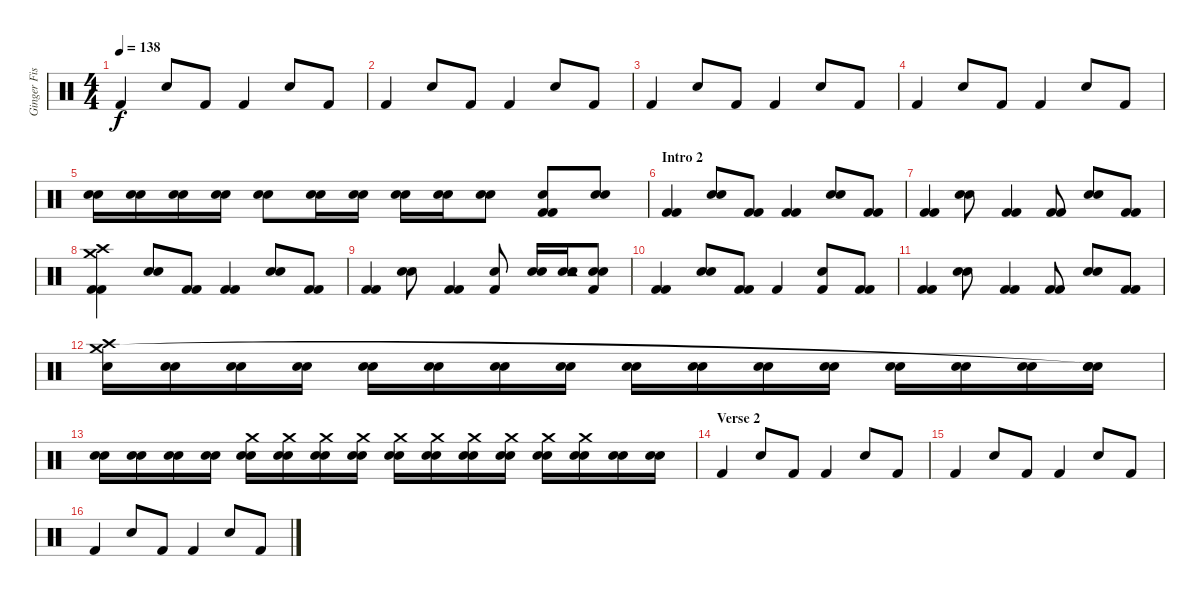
\track ("Ginger Fish [Drums]" "Ginger Fis") {instrument percussion}
\staff {score}
\articulation defaults
\ts (4 4)
\tempo 138
\clef neutral
\ks c "Kick (hit) 2".4{dy f} "Snare (hit) 2".8 "Kick (hit) 2".8 "Kick (hit) 2".4 "Snare (hit) 2".8 "Kick (hit) 2".8
|
"Kick (hit) 2".4 "Snare (hit) 2".8 "Kick (hit) 2".8 "Kick (hit) 2".4 "Snare (hit) 2".8 "Kick (hit) 2".8 |
"Kick (hit) 2".4 "Snare (hit) 2".8 "Kick (hit) 2".8 "Kick (hit) 2".4 "Snare (hit) 2".8 "Kick (hit) 2".8 |
"Kick (hit) 2".4 "Snare (hit) 2".8 "Kick (hit) 2".8 "Kick (hit) 2".4 "Snare (hit) 2".8 "Kick (hit) 2".8 |
("Snare (hit) 2" "Snare (hit) 2").16 ("Snare (hit) 2" "Snare (hit) 2").16 ("Snare (hit) 2" "Snare (hit) 2").16 ("Snare (hit) 2" "Snare (hit) 2").16 ("Snare (hit) 2" "Snare (hit) 2").8 ("Snare (hit) 2" "Snare (hit) 2").16 ("Snare (hit) 2" "Snare (hit) 2").16 ("Snare (hit) 2" "Snare (hit) 2").16 ("Snare (hit) 2" "Snare (hit) 2").16 ("Snare (hit) 2" "Snare (hit) 2").8 ("Snare (hit) 2" "Kick (hit) 2" "Kick (hit) 2").8 ("Snare (hit) 2" "Snare (hit) 2").8 |
\section ("" "Intro 2")
("Kick (hit) 2" "Kick (hit) 2").4 ("Snare (hit) 2" "Snare (hit) 2").8 ("Kick (hit) 2" "Kick (hit) 2").8 ("Kick (hit) 2" "Kick (hit) 2").4 ("Snare (hit) 2" "Snare (hit) 2").8 ("Kick (hit) 2" "Kick (hit) 2").8 |
("Kick (hit) 2" "Kick (hit) 2").4 ("Snare (hit) 2" "Snare (hit) 2").8 ("Kick (hit) 2" "Kick (hit) 2").4 ("Kick (hit) 2" "Kick (hit) 2").8 ("Snare (hit) 2" "Snare (hit) 2").8 ("Kick (hit) 2" "Kick (hit) 2").8 |
("Kick (hit) 2" "Kick (hit) 2" "Crash high (hit)" "Crash medium (hit)").4 ("Snare (hit) 2" "Snare (hit) 2").8 ("Kick (hit) 2" "Kick (hit) 2").8 ("Kick (hit) 2" "Kick (hit) 2").4 ("Snare (hit) 2" "Snare (hit) 2").8 ("Kick (hit) 2" "Kick (hit) 2").8 |
("Kick (hit) 2" "Kick (hit) 2").4 ("Snare (hit) 2" "Snare (hit) 2").8 ("Kick (hit) 2" "Kick (hit) 2").4 ("Kick (hit) 2" "Snare (hit) 2").8 ("Snare (hit) 2" "Snare (hit) 2").16 ("Snare (hit) 2" "Snare (hit) 2" "Tambourine (hit)").16 ("Kick (hit) 2" "Snare (hit) 2" "Snare (hit) 2").8 |
("Kick (hit) 2" "Kick (hit) 2").4 ("Snare (hit) 2" "Snare (hit) 2").8 ("Kick (hit) 2" "Kick (hit) 2").8 "Kick (hit) 2".4 ("Snare (hit) 2" "Kick (hit) 2").8 ("Kick (hit) 2" "Kick (hit) 2").8 |
("Kick (hit) 2" "Kick (hit) 2").4 ("Snare (hit) 2" "Snare (hit) 2").8 ("Kick (hit) 2" "Kick (hit) 2").4 ("Kick (hit) 2" "Kick (hit) 2").8 ("Snare (hit) 2" "Snare (hit) 2").8 ("Kick (hit) 2" "Kick (hit) 2").8 |
("Snare (hit) 2" "Crash high (hit)" "Crash medium (hit)").16 ("Snare (hit) 2" "Snare (hit) 2").16 ("Snare (hit) 2" "Snare (hit) 2").16 ("Snare (hit) 2" "Snare (hit) 2").16 ("Snare (hit) 2" "Snare (hit) 2").16 ("Snare (hit) 2" "Snare (hit) 2").16 ("Snare (hit) 2" "Snare (hit) 2").16 ("Snare (hit) 2" "Snare (hit) 2").16 ("Snare (hit) 2" "Snare (hit) 2").16 ("Snare (hit) 2" "Snare (hit) 2").16 ("Snare (hit) 2" "Snare (hit) 2").16 ("Snare (hit) 2" "Snare (hit) 2").16 ("Snare (hit) 2" "Snare (hit) 2").16 ("Snare (hit) 2" "Snare (hit) 2").16 ("Snare (hit) 2" "Snare (hit) 2").16 ("Snare (hit) 2" "Snare (hit) 2" "Snare (hit)"{t}).16 |
("Snare (hit) 2" "Snare (hit) 2").16 ("Snare (hit) 2" "Snare (hit) 2").16 ("Snare (hit) 2" "Snare (hit) 2").16 ("Snare (hit) 2" "Snare (hit) 2").16 ("Snare (hit) 2" "Snare (hit) 2" "Crash medium (hit)").16 ("Snare (hit) 2" "Snare (hit) 2" "Crash medium (hit)").16 ("Snare (hit) 2" "Snare (hit) 2" "Crash medium (hit)").16 ("Snare (hit) 2" "Snare (hit) 2" "Crash medium (hit)").16 ("Snare (hit) 2" "Snare (hit) 2" "Crash medium (hit)").16 ("Snare (hit) 2" "Snare (hit) 2" "Crash medium (hit)").16 ("Snare (hit) 2" "Snare (hit) 2" "Crash medium (hit)").16 ("Snare (hit) 2" "Snare (hit) 2" "Crash medium (hit)").16 ("Snare (hit) 2" "Snare (hit) 2" "Crash medium (hit)").16 ("Snare (hit) 2" "Snare (hit) 2" "Crash medium (hit)").16 ("Snare (hit) 2" "Snare (hit) 2").16 ("Snare (hit) 2" "Snare (hit) 2").16 |
\section ("" "Verse 2")
"Kick (hit) 2".4 "Snare (hit) 2".8 "Kick (hit) 2".8 "Kick (hit) 2".4 "Snare (hit) 2".8 "Kick (hit) 2".8 |
"Kick (hit) 2".4 "Snare (hit) 2".8 "Kick (hit) 2".8 "Kick (hit) 2".4 "Snare (hit) 2".8 "Kick (hit) 2".8 |
"Kick (hit) 2".4 "Snare (hit) 2".8 "Kick (hit) 2".8 "Kick (hit) 2".4 "Snare (hit) 2".8 "Kick (hit) 2".8
